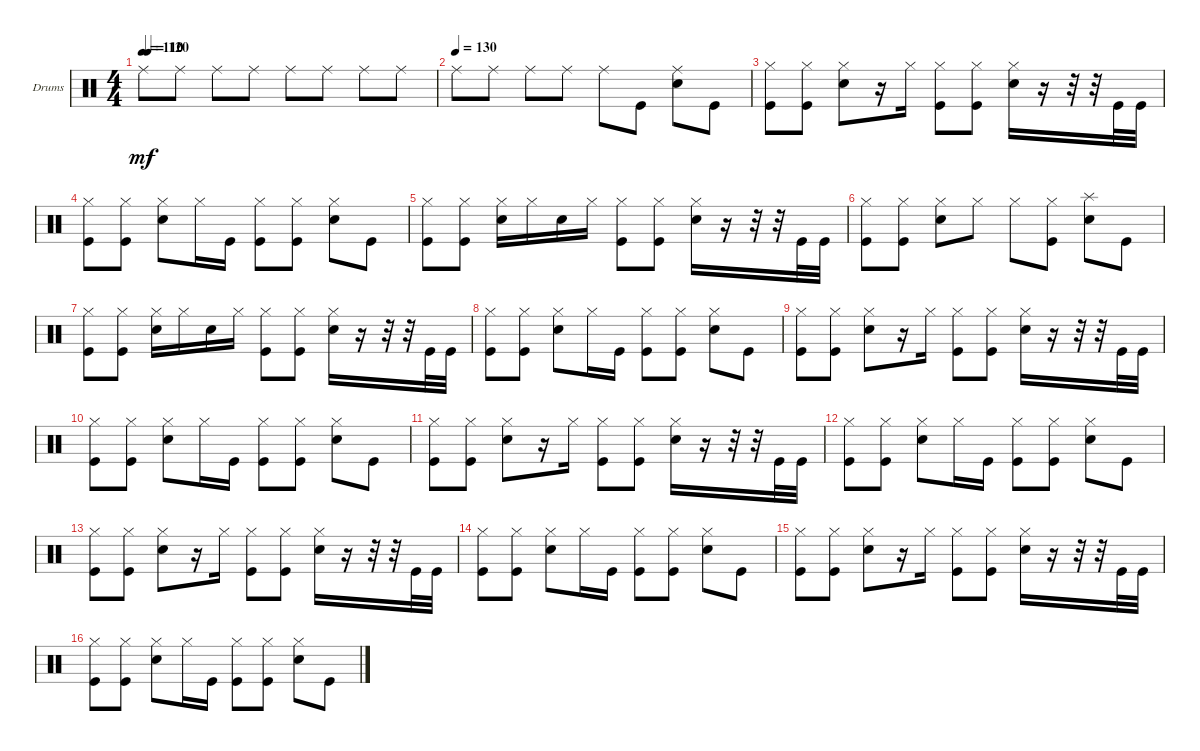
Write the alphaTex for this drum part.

\defaultSystemsLayout 4
\bracketExtendMode groupsimilarinstruments
\firstSystemTrackNameOrientation horizontal
\otherSystemsTrackNameOrientation horizontal
\track ("Drumkit" "Drums") {instrument percussion}
\staff {score}
\articulation defaults
\ts (4 4)
\tempo 110
\tempo (120 0.01875)
\clef neutral
\ks c "Ride (middle)".8{dy mf} "Ride (middle)".8 "Ride (middle)".8 "Ride (middle)".8 "Ride (middle)".8 "Ride (middle)".8 "Ride (middle)".8 "Ride (middle)".8
|
\tempo (130)
"Ride (middle)".8 "Ride (middle)".8 "Ride (middle)".8 "Ride (middle)".8 "Ride (middle)".8 "Kick (hit)".8 ("Snare (hit) 2" "Ride (middle)").8 "Kick (hit)".8 |
("Kick (hit)" "Hi-Hat (closed)").8 ("Hi-Hat (closed)" "Kick (hit)").8 ("Snare (hit) 2" "Hi-Hat (closed)").8 r.16 "Hi-Hat (closed)".16 ("Kick (hit)" "Hi-Hat (closed)").8 ("Kick (hit)" "Hi-Hat (closed)").8 ("Snare (hit) 2" "Hi-Hat (closed)").16 r.16 r.32 r.32 "Kick (hit)".32 "Kick (hit)".32 |
("Kick (hit)" "Hi-Hat (closed)").8 ("Kick (hit)" "Hi-Hat (closed)").8 ("Snare (hit) 2" "Hi-Hat (closed)").8 "Hi-Hat (closed)".16 "Kick (hit)".16 ("Kick (hit)" "Hi-Hat (closed)").8 ("Kick (hit)" "Hi-Hat (closed)").8 ("Snare (hit) 2" "Hi-Hat (closed)").8 "Kick (hit)".8 |
("Kick (hit)" "Hi-Hat (closed)").8 ("Hi-Hat (closed)" "Kick (hit)").8 ("Snare (hit) 2" "Hi-Hat (closed)").16 "Hi-Hat (closed)".16 "Snare (hit) 2".16 "Hi-Hat (closed)".16 ("Kick (hit)" "Hi-Hat (closed)").8 ("Kick (hit)" "Hi-Hat (closed)").8 ("Snare (hit) 2" "Hi-Hat (closed)").16 r.16 r.32 r.32 "Kick (hit)".32 "Kick (hit)".32 |
("Kick (hit)" "Hi-Hat (closed)").8 ("Kick (hit)" "Hi-Hat (closed)").8 ("Snare (hit) 2" "Hi-Hat (closed)").8 "Hi-Hat (closed)".8 "Hi-Hat (closed)".8 ("Kick (hit)" "Hi-Hat (closed)").8 ("Snare (hit) 2" "Splash (hit)").8 "Kick (hit)".8 |
("Kick (hit)" "Hi-Hat (closed)").8 ("Hi-Hat (closed)" "Kick (hit)").8 ("Snare (hit) 2" "Hi-Hat (closed)").16 "Hi-Hat (closed)".16 "Snare (hit) 2".16 "Hi-Hat (closed)".16 ("Kick (hit)" "Hi-Hat (closed)").8 ("Kick (hit)" "Hi-Hat (closed)").8 ("Snare (hit) 2" "Hi-Hat (closed)").16 r.16 r.32 r.32 "Kick (hit)".32 "Kick (hit)".32 |
("Kick (hit)" "Hi-Hat (closed)").8 ("Kick (hit)" "Hi-Hat (closed)").8 ("Snare (hit) 2" "Hi-Hat (closed)").8 "Hi-Hat (closed)".16 "Kick (hit)".16 ("Kick (hit)" "Hi-Hat (closed)").8 ("Kick (hit)" "Hi-Hat (closed)").8 ("Snare (hit) 2" "Hi-Hat (closed)").8 "Kick (hit)".8 |
("Kick (hit)" "Hi-Hat (closed)").8 ("Hi-Hat (closed)" "Kick (hit)").8 ("Snare (hit) 2" "Hi-Hat (closed)").8 r.16 "Hi-Hat (closed)".16 ("Kick (hit)" "Hi-Hat (closed)").8 ("Kick (hit)" "Hi-Hat (closed)").8 ("Snare (hit) 2" "Hi-Hat (closed)").16 r.16 r.32 r.32 "Kick (hit)".32 "Kick (hit)".32 |
("Kick (hit)" "Hi-Hat (closed)").8 ("Kick (hit)" "Hi-Hat (closed)").8 ("Snare (hit) 2" "Hi-Hat (closed)").8 "Hi-Hat (closed)".16 "Kick (hit)".16 ("Kick (hit)" "Hi-Hat (closed)").8 ("Kick (hit)" "Hi-Hat (closed)").8 ("Snare (hit) 2" "Hi-Hat (closed)").8 "Kick (hit)".8 |
("Kick (hit)" "Hi-Hat (closed)").8 ("Hi-Hat (closed)" "Kick (hit)").8 ("Snare (hit) 2" "Hi-Hat (closed)").8 r.16 "Hi-Hat (closed)".16 ("Kick (hit)" "Hi-Hat (closed)").8 ("Kick (hit)" "Hi-Hat (closed)").8 ("Snare (hit) 2" "Hi-Hat (closed)").16 r.16 r.32 r.32 "Kick (hit)".32 "Kick (hit)".32 |
("Kick (hit)" "Hi-Hat (closed)").8 ("Kick (hit)" "Hi-Hat (closed)").8 ("Snare (hit) 2" "Hi-Hat (closed)").8 "Hi-Hat (closed)".16 "Kick (hit)".16 ("Kick (hit)" "Hi-Hat (closed)").8 ("Kick (hit)" "Hi-Hat (closed)").8 ("Snare (hit) 2" "Hi-Hat (closed)").8 "Kick (hit)".8 |
("Kick (hit)" "Hi-Hat (closed)").8 ("Hi-Hat (closed)" "Kick (hit)").8 ("Snare (hit) 2" "Hi-Hat (closed)").8 r.16 "Hi-Hat (closed)".16 ("Kick (hit)" "Hi-Hat (closed)").8 ("Kick (hit)" "Hi-Hat (closed)").8 ("Snare (hit) 2" "Hi-Hat (closed)").16 r.16 r.32 r.32 "Kick (hit)".32 "Kick (hit)".32 |
("Kick (hit)" "Hi-Hat (closed)").8 ("Kick (hit)" "Hi-Hat (closed)").8 ("Snare (hit) 2" "Hi-Hat (closed)").8 "Hi-Hat (closed)".16 "Kick (hit)".16 ("Kick (hit)" "Hi-Hat (closed)").8 ("Kick (hit)" "Hi-Hat (closed)").8 ("Snare (hit) 2" "Hi-Hat (closed)").8 "Kick (hit)".8 |
("Kick (hit)" "Hi-Hat (closed)").8 ("Hi-Hat (closed)" "Kick (hit)").8 ("Snare (hit) 2" "Hi-Hat (closed)").8 r.16 "Hi-Hat (closed)".16 ("Kick (hit)" "Hi-Hat (closed)").8 ("Kick (hit)" "Hi-Hat (closed)").8 ("Snare (hit) 2" "Hi-Hat (closed)").16 r.16 r.32 r.32 "Kick (hit)".32 "Kick (hit)".32 |
("Kick (hit)" "Hi-Hat (closed)").8 ("Kick (hit)" "Hi-Hat (closed)").8 ("Snare (hit) 2" "Hi-Hat (closed)").8 "Hi-Hat (closed)".16 "Kick (hit)".16 ("Kick (hit)" "Hi-Hat (closed)").8 ("Kick (hit)" "Hi-Hat (closed)").8 ("Snare (hit) 2" "Hi-Hat (closed)").8 "Kick (hit)".8
